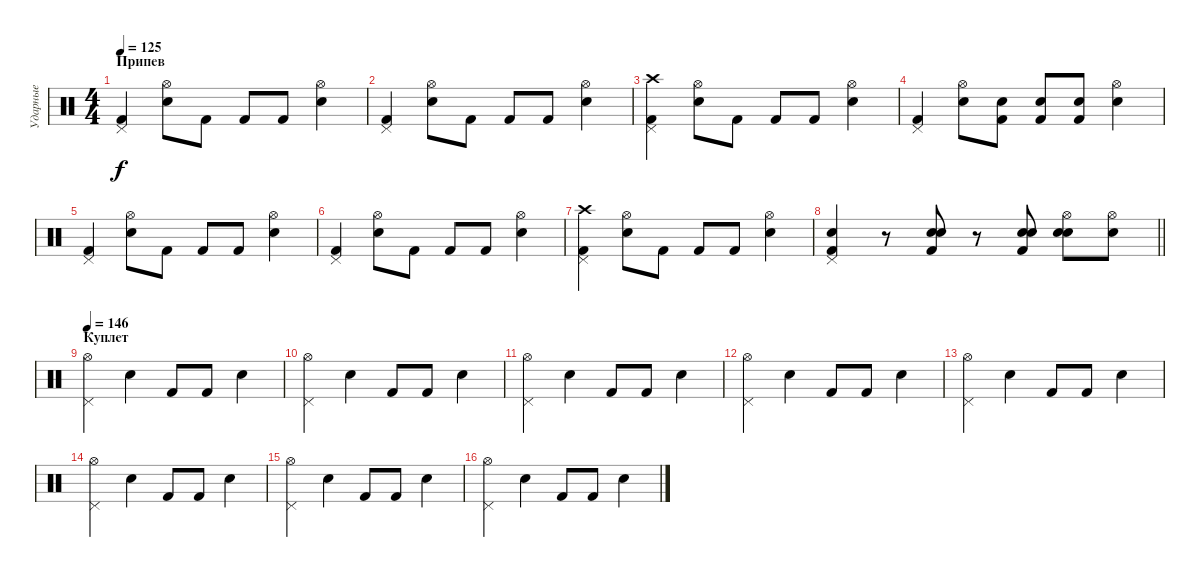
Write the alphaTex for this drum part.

\track ("Ударные" "Ударные") {instrument percussion}
\staff {score}
\articulation defaults
\ts (4 4)
\section ("" "Припев")
\tempo 125
\clef neutral
\ks c
("Kick (hit) 2" "Pedal Hi-Hat (hit)").4{dy f} ("Electric Snare (hit)" "Hi-Hat (open)").8 "Kick (hit) 2".8 "Kick (hit) 2".8 "Kick (hit) 2".8 ("Electric Snare (hit)" "Hi-Hat (open)").4 |
("Kick (hit) 2" "Pedal Hi-Hat (hit)").4 ("Electric Snare (hit)" "Hi-Hat (open)").8 "Kick (hit) 2".8 "Kick (hit) 2".8 "Kick (hit) 2".8 ("Electric Snare (hit)" "Hi-Hat (open)").4 |
("Kick (hit) 2" "Crash high (hit)" "Pedal Hi-Hat (hit)").4 ("Electric Snare (hit)" "Hi-Hat (open)").8 "Kick (hit) 2".8 "Kick (hit) 2".8 "Kick (hit) 2".8 ("Electric Snare (hit)" "Hi-Hat (open)").4 |
("Kick (hit) 2" "Pedal Hi-Hat (hit)").4 ("Electric Snare (hit)" "Hi-Hat (open)").8 ("Electric Snare (hit)" "Kick (hit) 2").8 ("Electric Snare (hit)" "Kick (hit) 2").8 ("Electric Snare (hit)" "Kick (hit) 2").8 ("Electric Snare (hit)" "Hi-Hat (open)").4 |
("Kick (hit) 2" "Pedal Hi-Hat (hit)").4 ("Electric Snare (hit)" "Hi-Hat (open)").8 "Kick (hit) 2".8 "Kick (hit) 2".8 "Kick (hit) 2".8 ("Electric Snare (hit)" "Hi-Hat (open)").4 |
("Kick (hit) 2" "Pedal Hi-Hat (hit)").4 ("Electric Snare (hit)" "Hi-Hat (open)").8 "Kick (hit) 2".8 "Kick (hit) 2".8 "Kick (hit) 2".8 ("Electric Snare (hit)" "Hi-Hat (open)").4 |
("Kick (hit) 2" "Crash high (hit)" "Pedal Hi-Hat (hit)").4 ("Electric Snare (hit)" "Hi-Hat (open)").8 "Kick (hit) 2".8 "Kick (hit) 2".8 "Kick (hit) 2".8 ("Electric Snare (hit)" "Hi-Hat (open)").4 |
\barLineRight lightlight
("Kick (hit) 2" "Electric Snare (hit)" "Pedal Hi-Hat (hit)").4 r.8 ("Snare (hit) 2" "Electric Snare (hit)" "Kick (hit) 2").8 r.8 ("Snare (hit) 2" "Electric Snare (hit)" "Kick (hit) 2").8 ("Snare (hit) 2" "Electric Snare (hit)" "Hi-Hat (open)").8 ("Hi-Hat (open)" "Snare (hit) 2").8 |
\section ("" "Куплет")
\tempo 146
("Pedal Hi-Hat (hit)" "Hi-Hat (open)").4 "Snare (hit) 2".4 "Kick (hit) 2".8 "Kick (hit) 2".8 "Snare (hit) 2".4 |
("Pedal Hi-Hat (hit)" "Hi-Hat (open)").4 "Snare (hit) 2".4 "Kick (hit) 2".8 "Kick (hit) 2".8 "Snare (hit) 2".4 |
("Pedal Hi-Hat (hit)" "Hi-Hat (open)").4 "Snare (hit) 2".4 "Kick (hit) 2".8 "Kick (hit) 2".8 "Snare (hit) 2".4 |
("Pedal Hi-Hat (hit)" "Hi-Hat (open)").4 "Snare (hit) 2".4 "Kick (hit) 2".8 "Kick (hit) 2".8 "Snare (hit) 2".4 |
("Pedal Hi-Hat (hit)" "Hi-Hat (open)").4 "Snare (hit) 2".4 "Kick (hit) 2".8 "Kick (hit) 2".8 "Snare (hit) 2".4 |
("Pedal Hi-Hat (hit)" "Hi-Hat (open)").4 "Snare (hit) 2".4 "Kick (hit) 2".8 "Kick (hit) 2".8 "Snare (hit) 2".4 |
("Pedal Hi-Hat (hit)" "Hi-Hat (open)").4 "Snare (hit) 2".4 "Kick (hit) 2".8 "Kick (hit) 2".8 "Snare (hit) 2".4 |
("Pedal Hi-Hat (hit)" "Hi-Hat (open)").4 "Snare (hit) 2".4 "Kick (hit) 2".8 "Kick (hit) 2".8 "Snare (hit) 2".4
